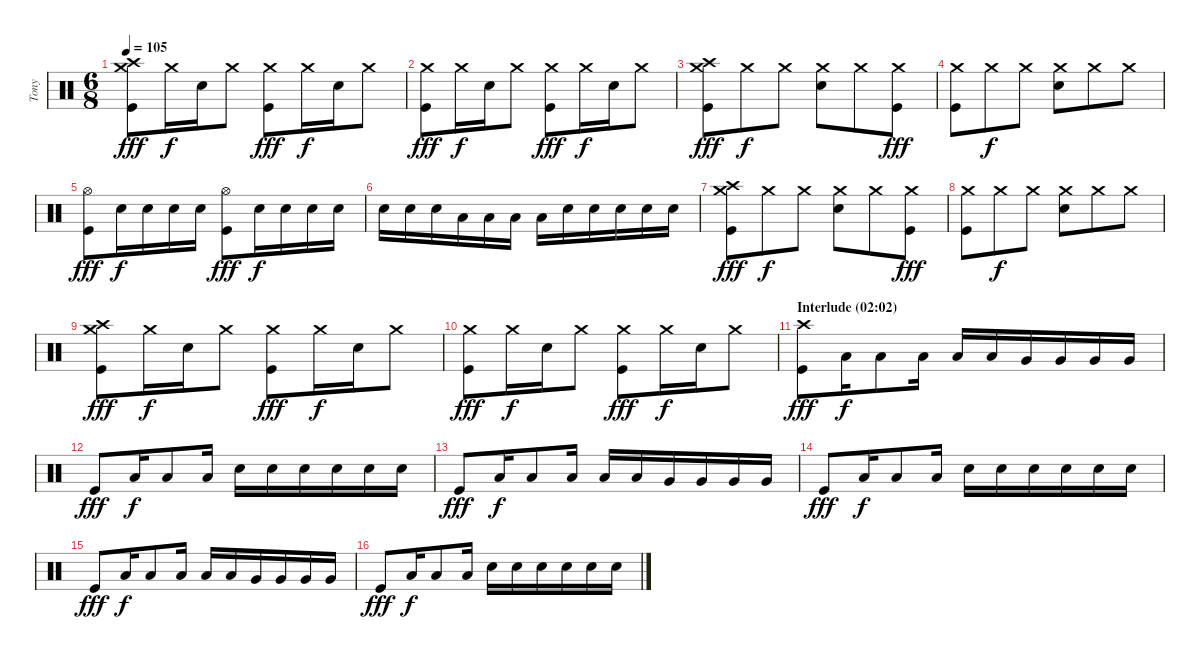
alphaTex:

\track ("Tony" "Tony") {instrument percussion}
\staff {score}
\articulation defaults
\ts (6 8)
\tempo 105
\clef neutral
\ks c
("Crash medium (hit)" "Crash high (hit)" "Kick (hit)").8{dy fff} "Crash medium (hit)".16{dy f} "Snare (hit) 2".16 "Crash medium (hit)".8 ("Crash medium (hit)" "Kick (hit)").8{dy fff} "Crash medium (hit)".16{dy f} "Snare (hit) 2".16 "Crash medium (hit)".8 |
("Crash medium (hit)" "Kick (hit)").8{dy fff} "Crash medium (hit)".16{dy f} "Snare (hit) 2".16 "Crash medium (hit)".8 ("Crash medium (hit)" "Kick (hit)").8{dy fff} "Crash medium (hit)".16{dy f} "Snare (hit) 2".16 "Crash medium (hit)".8 |
("Crash medium (hit)" "Crash high (hit)" "Kick (hit)").8{dy fff} "Crash medium (hit)".8{dy f} "Crash medium (hit)".8 ("Crash medium (hit)" "Snare (hit) 2").8 "Crash medium (hit)".8 ("Crash medium (hit)" "Kick (hit)").8{dy fff} |
("Crash medium (hit)" "Kick (hit)").8 "Crash medium (hit)".8{dy f} "Crash medium (hit)".8 ("Crash medium (hit)" "Snare (hit) 2").8 "Crash medium (hit)".8 "Crash medium (hit)".8 |
("Hi-Hat (open)" "Kick (hit)").8{dy fff} "Snare (hit) 2".16{dy f} "Snare (hit) 2".16 "Snare (hit) 2".16 "Snare (hit) 2".16 ("Hi-Hat (open)" "Kick (hit)").8{dy fff} "Snare (hit) 2".16{dy f} "Snare (hit) 2".16 "Snare (hit) 2".16 "Snare (hit) 2".16 |
"Snare (hit) 2".16 "Snare (hit) 2".16 "Snare (hit) 2".16 "Low Tom (hit)".16 "Low Tom (hit)".16 "Low Tom (hit)".16 "Low Tom (hit)".16 "Snare (hit) 2".16 "Snare (hit) 2".16 "Snare (hit) 2".16 "Snare (hit) 2".16 "Snare (hit) 2".16 |
("Crash medium (hit)" "Crash high (hit)" "Kick (hit)").8{dy fff} "Crash medium (hit)".8{dy f} "Crash medium (hit)".8 ("Crash medium (hit)" "Snare (hit) 2").8 "Crash medium (hit)".8 ("Crash medium (hit)" "Kick (hit)").8{dy fff} |
("Crash medium (hit)" "Kick (hit)").8 "Crash medium (hit)".8{dy f} "Crash medium (hit)".8 ("Crash medium (hit)" "Snare (hit) 2").8 "Crash medium (hit)".8 "Crash medium (hit)".8 |
("Crash medium (hit)" "Crash high (hit)" "Kick (hit)").8{dy fff} "Crash medium (hit)".16{dy f} "Snare (hit) 2".16 "Crash medium (hit)".8 ("Crash medium (hit)" "Kick (hit)").8{dy fff} "Crash medium (hit)".16{dy f} "Snare (hit) 2".16 "Crash medium (hit)".8 |
("Crash medium (hit)" "Kick (hit)").8{dy fff} "Crash medium (hit)".16{dy f} "Snare (hit) 2".16 "Crash medium (hit)".8 ("Crash medium (hit)" "Kick (hit)").8{dy fff} "Crash medium (hit)".16{dy f} "Snare (hit) 2".16 "Crash medium (hit)".8 |
\section ("" "Interlude (02:02)")
("Crash high (hit)" "Kick (hit)").8{dy fff} "Low Tom (hit)".16{dy f} "Low Tom (hit)".8 "Low Tom (hit)".16 "Low Tom (hit)".16 "Low Tom (hit)".16 "Very Low Tom (hit)".16 "Very Low Tom (hit)".16 "Very Low Tom (hit)".16 "Very Low Tom (hit)".16 |
"Kick (hit)".8{dy fff} "Low Tom (hit)".16{dy f} "Low Tom (hit)".8 "Low Tom (hit)".16 "Snare (hit) 2".16 "Snare (hit) 2".16 "Snare (hit) 2".16 "Snare (hit) 2".16 "Snare (hit) 2".16 "Snare (hit) 2".16 |
"Kick (hit)".8{dy fff} "Low Tom (hit)".16{dy f} "Low Tom (hit)".8 "Low Tom (hit)".16 "Low Tom (hit)".16 "Low Tom (hit)".16 "Very Low Tom (hit)".16 "Very Low Tom (hit)".16 "Very Low Tom (hit)".16 "Very Low Tom (hit)".16 |
"Kick (hit)".8{dy fff} "Low Tom (hit)".16{dy f} "Low Tom (hit)".8 "Low Tom (hit)".16 "Snare (hit) 2".16 "Snare (hit) 2".16 "Snare (hit) 2".16 "Snare (hit) 2".16 "Snare (hit) 2".16 "Snare (hit) 2".16 |
"Kick (hit)".8{dy fff} "Low Tom (hit)".16{dy f} "Low Tom (hit)".8 "Low Tom (hit)".16 "Low Tom (hit)".16 "Low Tom (hit)".16 "Very Low Tom (hit)".16 "Very Low Tom (hit)".16 "Very Low Tom (hit)".16 "Very Low Tom (hit)".16 |
"Kick (hit)".8{dy fff} "Low Tom (hit)".16{dy f} "Low Tom (hit)".8 "Low Tom (hit)".16 "Snare (hit) 2".16 "Snare (hit) 2".16 "Snare (hit) 2".16 "Snare (hit) 2".16 "Snare (hit) 2".16 "Snare (hit) 2".16
